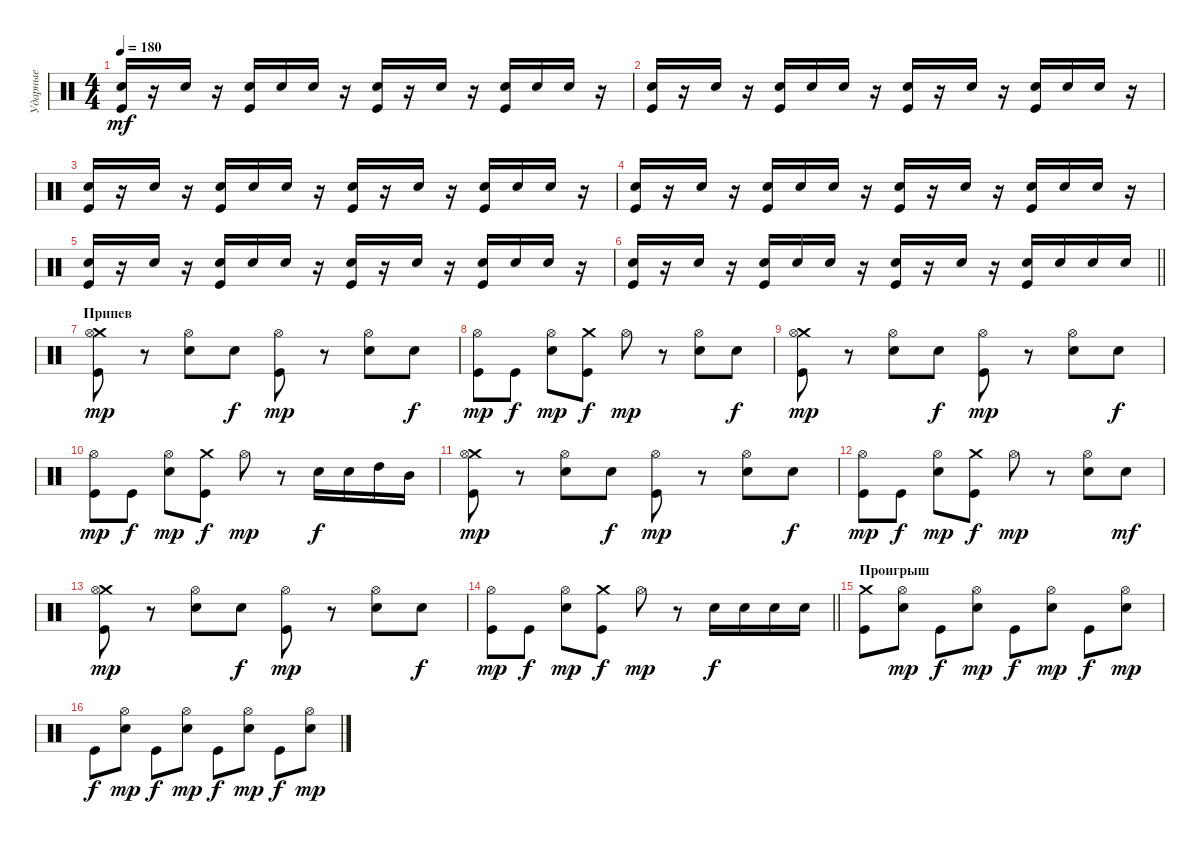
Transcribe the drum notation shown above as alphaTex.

\track ("Ударные" "Ударные") {instrument percussion}
\staff {score}
\articulation defaults
\ts (4 4)
\tempo 180
\clef neutral
\ks c
("Electric Snare (hit)" "Kick (hit)").16{dy mf} r.16 "Electric Snare (hit)".16 r.16 ("Electric Snare (hit)" "Kick (hit)").16 "Electric Snare (hit)".16 "Electric Snare (hit)".16 r.16 ("Electric Snare (hit)" "Kick (hit)").16 r.16 "Electric Snare (hit)".16 r.16 ("Electric Snare (hit)" "Kick (hit)").16 "Electric Snare (hit)".16 "Electric Snare (hit)".16 r.16 |
("Electric Snare (hit)" "Kick (hit)").16 r.16 "Electric Snare (hit)".16 r.16 ("Electric Snare (hit)" "Kick (hit)").16 "Electric Snare (hit)".16 "Electric Snare (hit)".16 r.16 ("Electric Snare (hit)" "Kick (hit)").16 r.16 "Electric Snare (hit)".16 r.16 ("Electric Snare (hit)" "Kick (hit)").16 "Electric Snare (hit)".16 "Electric Snare (hit)".16 r.16 |
("Electric Snare (hit)" "Kick (hit)").16 r.16 "Electric Snare (hit)".16 r.16 ("Electric Snare (hit)" "Kick (hit)").16 "Electric Snare (hit)".16 "Electric Snare (hit)".16 r.16 ("Electric Snare (hit)" "Kick (hit)").16 r.16 "Electric Snare (hit)".16 r.16 ("Electric Snare (hit)" "Kick (hit)").16 "Electric Snare (hit)".16 "Electric Snare (hit)".16 r.16 |
("Electric Snare (hit)" "Kick (hit)").16 r.16 "Electric Snare (hit)".16 r.16 ("Electric Snare (hit)" "Kick (hit)").16 "Electric Snare (hit)".16 "Electric Snare (hit)".16 r.16 ("Electric Snare (hit)" "Kick (hit)").16 r.16 "Electric Snare (hit)".16 r.16 ("Electric Snare (hit)" "Kick (hit)").16 "Electric Snare (hit)".16 "Electric Snare (hit)".16 r.16 |
("Electric Snare (hit)" "Kick (hit)").16 r.16 "Electric Snare (hit)".16 r.16 ("Electric Snare (hit)" "Kick (hit)").16 "Electric Snare (hit)".16 "Electric Snare (hit)".16 r.16 ("Electric Snare (hit)" "Kick (hit)").16 r.16 "Electric Snare (hit)".16 r.16 ("Electric Snare (hit)" "Kick (hit)").16 "Electric Snare (hit)".16 "Electric Snare (hit)".16 r.16 |
\barLineRight lightlight
("Electric Snare (hit)" "Kick (hit)").16 r.16 "Electric Snare (hit)".16 r.16 ("Electric Snare (hit)" "Kick (hit)").16 "Electric Snare (hit)".16 "Electric Snare (hit)".16 r.16 ("Electric Snare (hit)" "Kick (hit)").16 r.16 "Electric Snare (hit)".16 r.16 ("Electric Snare (hit)" "Kick (hit)").16 "Electric Snare (hit)".16 "Electric Snare (hit)".16 "Electric Snare (hit)".16 |
\section ("" "Припев")
("Crash medium (hit)" "Kick (hit)" "Hi-Hat (open)").8{dy mp} r.8 ("Electric Snare (hit)" "Hi-Hat (open)").8 "Electric Snare (hit)".8{dy f} ("Kick (hit)" "Hi-Hat (open)").8{dy mp} r.8 ("Electric Snare (hit)" "Hi-Hat (open)").8 "Electric Snare (hit)".8{dy f} |
("Kick (hit)" "Hi-Hat (open)").8{dy mp} "Kick (hit)".8{dy f} ("Electric Snare (hit)" "Hi-Hat (open)").8{dy mp} ("Crash medium (hit)" "Kick (hit)").8{dy f} "Hi-Hat (open)".8{dy mp} r.8 ("Electric Snare (hit)" "Hi-Hat (open)").8 "Electric Snare (hit)".8{dy f} |
("Crash medium (hit)" "Kick (hit)" "Hi-Hat (open)").8{dy mp} r.8 ("Electric Snare (hit)" "Hi-Hat (open)").8 "Electric Snare (hit)".8{dy f} ("Kick (hit)" "Hi-Hat (open)").8{dy mp} r.8 ("Electric Snare (hit)" "Hi-Hat (open)").8 "Electric Snare (hit)".8{dy f} |
("Kick (hit)" "Hi-Hat (open)").8{dy mp} "Kick (hit)".8{dy f} ("Electric Snare (hit)" "Hi-Hat (open)").8{dy mp} ("Crash medium (hit)" "Kick (hit)").8{dy f} "Hi-Hat (open)".8{dy mp} r.8 "Electric Snare (hit)".16{dy f} "Electric Snare (hit)".16 "High Tom (hit)".16 "Mid Tom (hit)".16 |
("Crash medium (hit)" "Kick (hit)" "Hi-Hat (open)").8{dy mp} r.8 ("Electric Snare (hit)" "Hi-Hat (open)").8 "Electric Snare (hit)".8{dy f} ("Kick (hit)" "Hi-Hat (open)").8{dy mp} r.8 ("Electric Snare (hit)" "Hi-Hat (open)").8 "Electric Snare (hit)".8{dy f} |
("Kick (hit)" "Hi-Hat (open)").8{dy mp} "Kick (hit)".8{dy f} ("Electric Snare (hit)" "Hi-Hat (open)").8{dy mp} ("Crash medium (hit)" "Kick (hit)").8{dy f} "Hi-Hat (open)".8{dy mp} r.8 ("Electric Snare (hit)" "Hi-Hat (open)").8 "Electric Snare (hit)".8{dy mf} |
("Crash medium (hit)" "Kick (hit)" "Hi-Hat (open)").8{dy mp} r.8 ("Electric Snare (hit)" "Hi-Hat (open)").8 "Electric Snare (hit)".8{dy f} ("Kick (hit)" "Hi-Hat (open)").8{dy mp} r.8 ("Electric Snare (hit)" "Hi-Hat (open)").8 "Electric Snare (hit)".8{dy f} |
\barLineRight lightlight
("Kick (hit)" "Hi-Hat (open)").8{dy mp} "Kick (hit)".8{dy f} ("Electric Snare (hit)" "Hi-Hat (open)").8{dy mp} ("Crash medium (hit)" "Kick (hit)").8{dy f} "Hi-Hat (open)".8{dy mp} r.8 "Electric Snare (hit)".16{dy f} "Electric Snare (hit)".16 "Electric Snare (hit)".16 "Electric Snare (hit)".16 |
\section ("" "Проигрыш")
("Kick (hit)" "Crash medium (hit)").8 ("Electric Snare (hit)" "Hi-Hat (open)").8{dy mp} "Kick (hit)".8{dy f} ("Electric Snare (hit)" "Hi-Hat (open)").8{dy mp} "Kick (hit)".8{dy f} ("Electric Snare (hit)" "Hi-Hat (open)").8{dy mp} "Kick (hit)".8{dy f} ("Electric Snare (hit)" "Hi-Hat (open)").8{dy mp} |
"Kick (hit)".8{dy f} ("Electric Snare (hit)" "Hi-Hat (open)").8{dy mp} "Kick (hit)".8{dy f} ("Electric Snare (hit)" "Hi-Hat (open)").8{dy mp} "Kick (hit)".8{dy f} ("Electric Snare (hit)" "Hi-Hat (open)").8{dy mp} "Kick (hit)".8{dy f} ("Electric Snare (hit)" "Hi-Hat (open)").8{dy mp}
